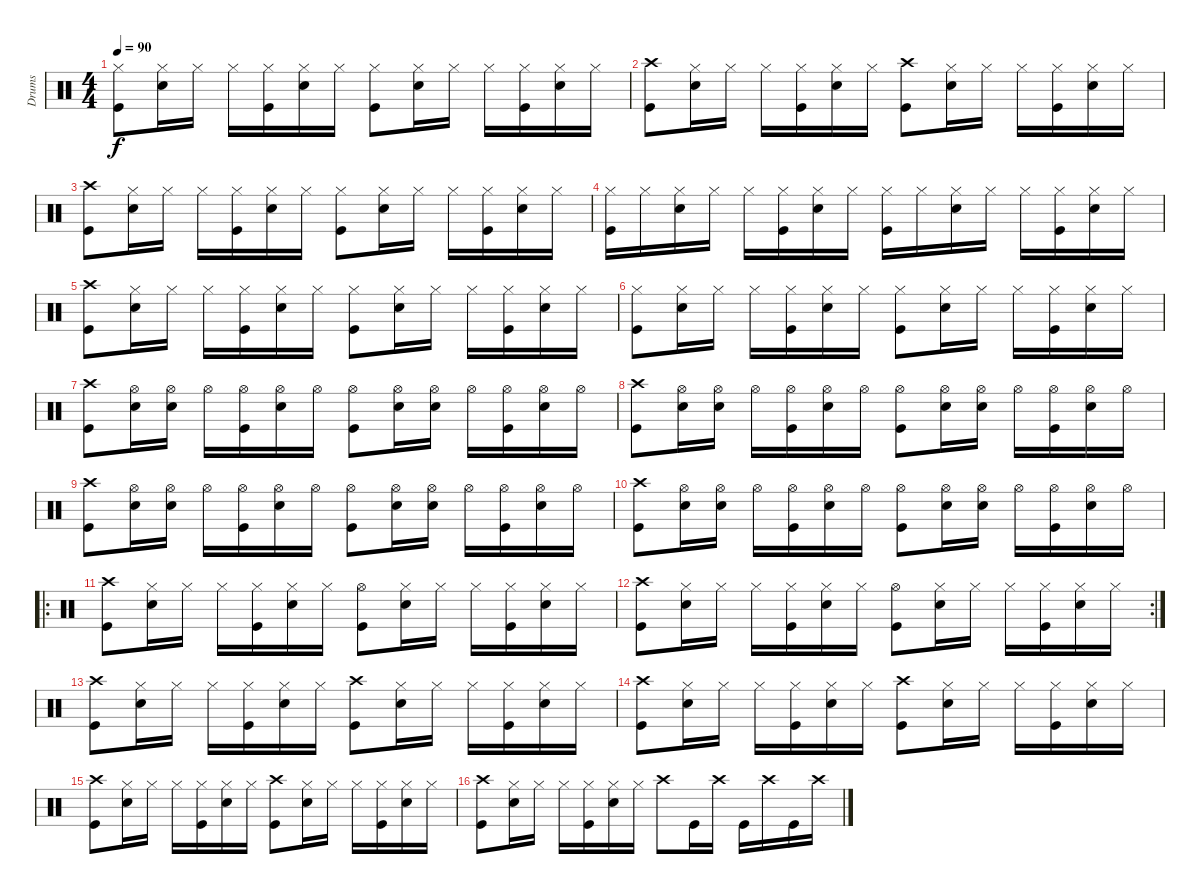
\track ("Drums" "Drums") {instrument percussion}
\staff {score}
\articulation defaults
\ts (4 4)
\tempo 90
\clef neutral
\ks c
("Hi-Hat (closed)" "Kick (hit)").8{dy f} ("Hi-Hat (closed)" "Snare (hit) 2").16 "Hi-Hat (closed)".16 "Hi-Hat (closed)".16 ("Hi-Hat (closed)" "Kick (hit)").16 ("Hi-Hat (closed)" "Snare (hit) 2").16 "Hi-Hat (closed)".16 ("Hi-Hat (closed)" "Kick (hit)").8 ("Hi-Hat (closed)" "Snare (hit) 2").16 "Hi-Hat (closed)".16 "Hi-Hat (closed)".16 ("Hi-Hat (closed)" "Kick (hit)").16 ("Hi-Hat (closed)" "Snare (hit) 2").16 "Hi-Hat (closed)".16 |
("Crash high (hit)" "Kick (hit)").8 ("Hi-Hat (closed)" "Snare (hit) 2").16 "Hi-Hat (closed)".16 "Hi-Hat (closed)".16 ("Hi-Hat (closed)" "Kick (hit)").16 ("Hi-Hat (closed)" "Snare (hit) 2").16 "Hi-Hat (closed)".16 ("Crash high (hit)" "Kick (hit)").8 ("Hi-Hat (closed)" "Snare (hit) 2").16 "Hi-Hat (closed)".16 "Hi-Hat (closed)".16 ("Hi-Hat (closed)" "Kick (hit)").16 ("Hi-Hat (closed)" "Snare (hit) 2").16 "Hi-Hat (closed)".16 |
("Crash high (hit)" "Kick (hit)").8 ("Hi-Hat (closed)" "Snare (hit) 2").16 "Hi-Hat (closed)".16 "Hi-Hat (closed)".16 ("Hi-Hat (closed)" "Kick (hit)").16 ("Hi-Hat (closed)" "Snare (hit) 2").16 "Hi-Hat (closed)".16 ("Hi-Hat (closed)" "Kick (hit)").8 ("Hi-Hat (closed)" "Snare (hit) 2").16 "Hi-Hat (closed)".16 "Hi-Hat (closed)".16 ("Hi-Hat (closed)" "Kick (hit)").16 ("Hi-Hat (closed)" "Snare (hit) 2").16 "Hi-Hat (closed)".16 |
("Hi-Hat (closed)" "Kick (hit)").16 "Hi-Hat (closed)".16 ("Hi-Hat (closed)" "Snare (hit) 2").16 "Hi-Hat (closed)".16 "Hi-Hat (closed)".16 ("Hi-Hat (closed)" "Kick (hit)").16 ("Hi-Hat (closed)" "Snare (hit) 2").16 "Hi-Hat (closed)".16 ("Hi-Hat (closed)" "Kick (hit)").16 "Hi-Hat (closed)".16 ("Hi-Hat (closed)" "Snare (hit) 2").16 "Hi-Hat (closed)".16 "Hi-Hat (closed)".16 ("Hi-Hat (closed)" "Kick (hit)").16 ("Hi-Hat (closed)" "Snare (hit) 2").16 "Hi-Hat (closed)".16 |
("Crash high (hit)" "Kick (hit)").8 ("Hi-Hat (closed)" "Snare (hit) 2").16 "Hi-Hat (closed)".16 "Hi-Hat (closed)".16 ("Hi-Hat (closed)" "Kick (hit)").16 ("Hi-Hat (closed)" "Snare (hit) 2").16 "Hi-Hat (closed)".16 ("Hi-Hat (closed)" "Kick (hit)").8 ("Hi-Hat (closed)" "Snare (hit) 2").16 "Hi-Hat (closed)".16 "Hi-Hat (closed)".16 ("Hi-Hat (closed)" "Kick (hit)").16 ("Hi-Hat (closed)" "Snare (hit) 2").16 "Hi-Hat (closed)".16 |
("Hi-Hat (closed)" "Kick (hit)").8 ("Hi-Hat (closed)" "Snare (hit) 2").16 "Hi-Hat (closed)".16 "Hi-Hat (closed)".16 ("Hi-Hat (closed)" "Kick (hit)").16 ("Hi-Hat (closed)" "Snare (hit) 2").16 "Hi-Hat (closed)".16 ("Hi-Hat (closed)" "Kick (hit)").8 ("Hi-Hat (closed)" "Snare (hit) 2").16 "Hi-Hat (closed)".16 "Hi-Hat (closed)".16 ("Hi-Hat (closed)" "Kick (hit)").16 ("Hi-Hat (closed)" "Snare (hit) 2").16 "Hi-Hat (closed)".16 |
("Crash high (hit)" "Kick (hit)").8 ("Hi-Hat (open)" "Snare (hit) 2").16 ("Hi-Hat (open)" "Snare (hit) 2").16 "Hi-Hat (open)".16 ("Hi-Hat (open)" "Kick (hit)").16 ("Hi-Hat (open)" "Snare (hit) 2").16 "Hi-Hat (open)".16 ("Hi-Hat (open)" "Kick (hit)").8 ("Hi-Hat (open)" "Snare (hit) 2").16 ("Hi-Hat (open)" "Snare (hit) 2").16 "Hi-Hat (open)".16 ("Hi-Hat (open)" "Kick (hit)").16 ("Hi-Hat (open)" "Snare (hit) 2").16 "Hi-Hat (open)".16 |
("Crash high (hit)" "Kick (hit)").8 ("Hi-Hat (open)" "Snare (hit) 2").16 ("Hi-Hat (open)" "Snare (hit) 2").16 "Hi-Hat (open)".16 ("Hi-Hat (open)" "Kick (hit)").16 ("Hi-Hat (open)" "Snare (hit) 2").16 "Hi-Hat (open)".16 ("Hi-Hat (open)" "Kick (hit)").8 ("Hi-Hat (open)" "Snare (hit) 2").16 ("Hi-Hat (open)" "Snare (hit) 2").16 "Hi-Hat (open)".16 ("Hi-Hat (open)" "Kick (hit)").16 ("Hi-Hat (open)" "Snare (hit) 2").16 "Hi-Hat (open)".16 |
("Crash high (hit)" "Kick (hit)").8 ("Hi-Hat (open)" "Snare (hit) 2").16 ("Hi-Hat (open)" "Snare (hit) 2").16 "Hi-Hat (open)".16 ("Hi-Hat (open)" "Kick (hit)").16 ("Hi-Hat (open)" "Snare (hit) 2").16 "Hi-Hat (open)".16 ("Hi-Hat (open)" "Kick (hit)").8 ("Hi-Hat (open)" "Snare (hit) 2").16 ("Hi-Hat (open)" "Snare (hit) 2").16 "Hi-Hat (open)".16 ("Hi-Hat (open)" "Kick (hit)").16 ("Hi-Hat (open)" "Snare (hit) 2").16 "Hi-Hat (open)".16 |
("Crash high (hit)" "Kick (hit)").8 ("Hi-Hat (open)" "Snare (hit) 2").16 ("Hi-Hat (open)" "Snare (hit) 2").16 "Hi-Hat (open)".16 ("Hi-Hat (open)" "Kick (hit)").16 ("Hi-Hat (open)" "Snare (hit) 2").16 "Hi-Hat (open)".16 ("Hi-Hat (open)" "Kick (hit)").8 ("Hi-Hat (open)" "Snare (hit) 2").16 ("Hi-Hat (open)" "Snare (hit) 2").16 "Hi-Hat (open)".16 ("Hi-Hat (open)" "Kick (hit)").16 ("Hi-Hat (open)" "Snare (hit) 2").16 "Hi-Hat (open)".16 |
\ro
("Crash high (hit)" "Kick (hit)").8 ("Hi-Hat (closed)" "Snare (hit) 2").16 "Hi-Hat (closed)".16 "Hi-Hat (closed)".16 ("Hi-Hat (closed)" "Kick (hit)").16 ("Hi-Hat (closed)" "Snare (hit) 2").16 "Hi-Hat (closed)".16 ("Hi-Hat (open)" "Kick (hit)").8 ("Hi-Hat (closed)" "Snare (hit) 2").16 "Hi-Hat (closed)".16 "Hi-Hat (closed)".16 ("Hi-Hat (closed)" "Kick (hit)").16 ("Hi-Hat (closed)" "Snare (hit) 2").16 "Hi-Hat (closed)".16 |
\rc 2
("Crash high (hit)" "Kick (hit)").8 ("Hi-Hat (closed)" "Snare (hit) 2").16 "Hi-Hat (closed)".16 "Hi-Hat (closed)".16 ("Hi-Hat (closed)" "Kick (hit)").16 ("Hi-Hat (closed)" "Snare (hit) 2").16 "Hi-Hat (closed)".16 ("Hi-Hat (open)" "Kick (hit)").8 ("Hi-Hat (closed)" "Snare (hit) 2").16 "Hi-Hat (closed)".16 "Hi-Hat (closed)".16 ("Hi-Hat (closed)" "Kick (hit)").16 ("Hi-Hat (closed)" "Snare (hit) 2").16 "Hi-Hat (closed)".16 |
("Crash high (hit)" "Kick (hit)").8 ("Hi-Hat (closed)" "Snare (hit) 2").16 "Hi-Hat (closed)".16 "Hi-Hat (closed)".16 ("Hi-Hat (closed)" "Kick (hit)").16 ("Hi-Hat (closed)" "Snare (hit) 2").16 "Hi-Hat (closed)".16 ("Crash high (hit)" "Kick (hit)").8 ("Hi-Hat (closed)" "Snare (hit) 2").16 "Hi-Hat (closed)".16 "Hi-Hat (closed)".16 ("Hi-Hat (closed)" "Kick (hit)").16 ("Hi-Hat (closed)" "Snare (hit) 2").16 "Hi-Hat (closed)".16 |
("Crash high (hit)" "Kick (hit)").8 ("Hi-Hat (closed)" "Snare (hit) 2").16 "Hi-Hat (closed)".16 "Hi-Hat (closed)".16 ("Hi-Hat (closed)" "Kick (hit)").16 ("Hi-Hat (closed)" "Snare (hit) 2").16 "Hi-Hat (closed)".16 ("Crash high (hit)" "Kick (hit)").8 ("Hi-Hat (closed)" "Snare (hit) 2").16 "Hi-Hat (closed)".16 "Hi-Hat (closed)".16 ("Hi-Hat (closed)" "Kick (hit)").16 ("Hi-Hat (closed)" "Snare (hit) 2").16 "Hi-Hat (closed)".16 |
("Crash high (hit)" "Kick (hit)").8 ("Hi-Hat (closed)" "Snare (hit) 2").16 "Hi-Hat (closed)".16 "Hi-Hat (closed)".16 ("Hi-Hat (closed)" "Kick (hit)").16 ("Hi-Hat (closed)" "Snare (hit) 2").16 "Hi-Hat (closed)".16 ("Crash high (hit)" "Kick (hit)").8 ("Hi-Hat (closed)" "Snare (hit) 2").16 "Hi-Hat (closed)".16 "Hi-Hat (closed)".16 ("Hi-Hat (closed)" "Kick (hit)").16 ("Hi-Hat (closed)" "Snare (hit) 2").16 "Hi-Hat (closed)".16 |
("Crash high (hit)" "Kick (hit)").8 ("Hi-Hat (closed)" "Snare (hit) 2").16 "Hi-Hat (closed)".16 "Hi-Hat (closed)".16 ("Hi-Hat (closed)" "Kick (hit)").16 ("Hi-Hat (closed)" "Snare (hit) 2").16 "Hi-Hat (closed)".16 "Crash high (hit)".8 "Kick (hit)".16 "Crash high (hit)".16 "Kick (hit)".16 "Crash high (hit)".16 "Kick (hit)".16 "Crash high (hit)".16
